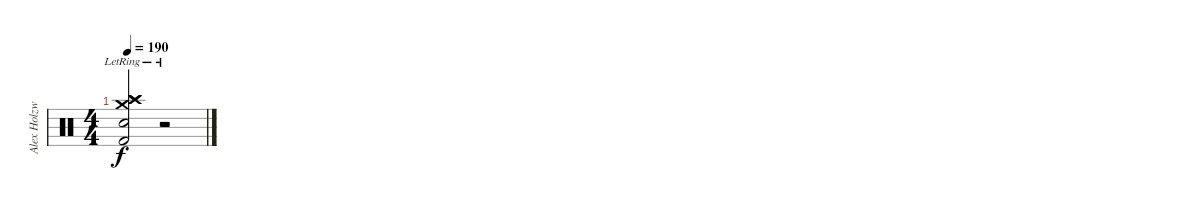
\track ("Alex Holzwarth" "Alex Holzw") {instrument percussion}
\staff {score}
\articulation defaults
\ts (4 4)
\tempo 190
\clef neutral
\ks c
("Kick (hit) 2"{lr} "Crash high (hit)"{lr} "Crash medium (hit)"{lr} "Electric Snare (hit)" "Crash high (hit)"{lr}).2{dy f} r.2
